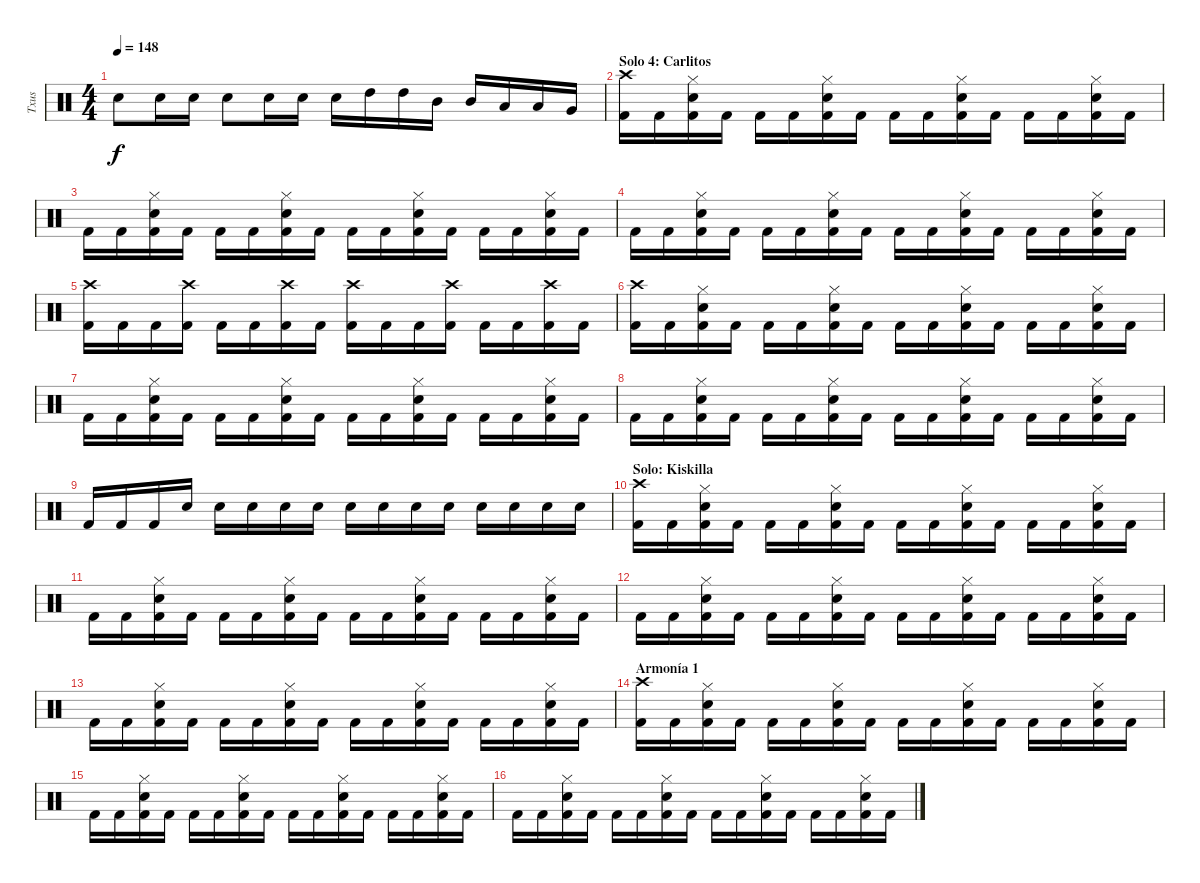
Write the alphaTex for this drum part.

\track ("Txus" "Txus") {instrument percussion}
\staff {score}
\articulation defaults
\ts (4 4)
\tempo 148
\clef neutral
\ks c "Electric Snare (hit)".8{dy f} "Electric Snare (hit)".16 "Electric Snare (hit)".16 "Electric Snare (hit)".8 "Electric Snare (hit)".16 "Electric Snare (hit)".16 "Electric Snare (hit)".16 "High Tom (hit)".16 "High Tom (hit)".16 "Mid Tom (hit)".16 "Mid Tom (hit)".16 "Low Tom (hit)".16 "Low Tom (hit)".16 "Very Low Tom (hit)".16
|
\section ("" "Solo 4: Carlitos")
("Kick (hit) 2" "Crash high (hit)").16 "Kick (hit) 2".16 ("Kick (hit) 2" "Electric Snare (hit)" "Hi-Hat (closed)").16 "Kick (hit) 2".16 "Kick (hit) 2".16 "Kick (hit) 2".16 ("Kick (hit) 2" "Electric Snare (hit)" "Hi-Hat (closed)").16 "Kick (hit) 2".16 "Kick (hit) 2".16 "Kick (hit) 2".16 ("Kick (hit) 2" "Electric Snare (hit)" "Hi-Hat (closed)").16 "Kick (hit) 2".16 "Kick (hit) 2".16 "Kick (hit) 2".16 ("Kick (hit) 2" "Electric Snare (hit)" "Hi-Hat (closed)").16 "Kick (hit) 2".16 |
"Kick (hit) 2".16 "Kick (hit) 2".16 ("Kick (hit) 2" "Electric Snare (hit)" "Hi-Hat (closed)").16 "Kick (hit) 2".16 "Kick (hit) 2".16 "Kick (hit) 2".16 ("Kick (hit) 2" "Electric Snare (hit)" "Hi-Hat (closed)").16 "Kick (hit) 2".16 "Kick (hit) 2".16 "Kick (hit) 2".16 ("Kick (hit) 2" "Electric Snare (hit)" "Hi-Hat (closed)").16 "Kick (hit) 2".16 "Kick (hit) 2".16 "Kick (hit) 2".16 ("Kick (hit) 2" "Electric Snare (hit)" "Hi-Hat (closed)").16 "Kick (hit) 2".16 |
"Kick (hit) 2".16 "Kick (hit) 2".16 ("Kick (hit) 2" "Electric Snare (hit)" "Hi-Hat (closed)").16 "Kick (hit) 2".16 "Kick (hit) 2".16 "Kick (hit) 2".16 ("Kick (hit) 2" "Electric Snare (hit)" "Hi-Hat (closed)").16 "Kick (hit) 2".16 "Kick (hit) 2".16 "Kick (hit) 2".16 ("Kick (hit) 2" "Electric Snare (hit)" "Hi-Hat (closed)").16 "Kick (hit) 2".16 "Kick (hit) 2".16 "Kick (hit) 2".16 ("Kick (hit) 2" "Electric Snare (hit)" "Hi-Hat (closed)").16 "Kick (hit) 2".16 |
("Kick (hit) 2" "Crash high (hit)").16 "Kick (hit) 2".16 "Kick (hit) 2".16 ("Kick (hit) 2" "Crash high (hit)").16 "Kick (hit) 2".16 "Kick (hit) 2".16 ("Kick (hit) 2" "Crash high (hit)").16 "Kick (hit) 2".16 ("Kick (hit) 2" "Crash high (hit)").16 "Kick (hit) 2".16 "Kick (hit) 2".16 ("Kick (hit) 2" "Crash high (hit)").16 "Kick (hit) 2".16 "Kick (hit) 2".16 ("Kick (hit) 2" "Crash high (hit)").16 "Kick (hit) 2".16 |
("Kick (hit) 2" "Crash high (hit)").16 "Kick (hit) 2".16 ("Kick (hit) 2" "Electric Snare (hit)" "Hi-Hat (closed)").16 "Kick (hit) 2".16 "Kick (hit) 2".16 "Kick (hit) 2".16 ("Kick (hit) 2" "Electric Snare (hit)" "Hi-Hat (closed)").16 "Kick (hit) 2".16 "Kick (hit) 2".16 "Kick (hit) 2".16 ("Kick (hit) 2" "Electric Snare (hit)" "Hi-Hat (closed)").16 "Kick (hit) 2".16 "Kick (hit) 2".16 "Kick (hit) 2".16 ("Kick (hit) 2" "Electric Snare (hit)" "Hi-Hat (closed)").16 "Kick (hit) 2".16 |
"Kick (hit) 2".16 "Kick (hit) 2".16 ("Kick (hit) 2" "Electric Snare (hit)" "Hi-Hat (closed)").16 "Kick (hit) 2".16 "Kick (hit) 2".16 "Kick (hit) 2".16 ("Kick (hit) 2" "Electric Snare (hit)" "Hi-Hat (closed)").16 "Kick (hit) 2".16 "Kick (hit) 2".16 "Kick (hit) 2".16 ("Kick (hit) 2" "Electric Snare (hit)" "Hi-Hat (closed)").16 "Kick (hit) 2".16 "Kick (hit) 2".16 "Kick (hit) 2".16 ("Kick (hit) 2" "Electric Snare (hit)" "Hi-Hat (closed)").16 "Kick (hit) 2".16 |
"Kick (hit) 2".16 "Kick (hit) 2".16 ("Kick (hit) 2" "Electric Snare (hit)" "Hi-Hat (closed)").16 "Kick (hit) 2".16 "Kick (hit) 2".16 "Kick (hit) 2".16 ("Kick (hit) 2" "Electric Snare (hit)" "Hi-Hat (closed)").16 "Kick (hit) 2".16 "Kick (hit) 2".16 "Kick (hit) 2".16 ("Kick (hit) 2" "Electric Snare (hit)" "Hi-Hat (closed)").16 "Kick (hit) 2".16 "Kick (hit) 2".16 "Kick (hit) 2".16 ("Kick (hit) 2" "Electric Snare (hit)" "Hi-Hat (closed)").16 "Kick (hit) 2".16 |
"Kick (hit) 2".16 "Kick (hit) 2".16 "Kick (hit) 2".16 "Electric Snare (hit)".16 "Electric Snare (hit)".16 "Electric Snare (hit)".16 "Electric Snare (hit)".16 "Electric Snare (hit)".16 "Electric Snare (hit)".16 "Electric Snare (hit)".16 "Electric Snare (hit)".16 "Electric Snare (hit)".16 "Electric Snare (hit)".16 "Electric Snare (hit)".16 "Electric Snare (hit)".16 "Electric Snare (hit)".16 |
\section ("" "Solo: Kiskilla")
("Kick (hit) 2" "Crash high (hit)").16 "Kick (hit) 2".16 ("Kick (hit) 2" "Electric Snare (hit)" "Hi-Hat (closed)").16 "Kick (hit) 2".16 "Kick (hit) 2".16 "Kick (hit) 2".16 ("Kick (hit) 2" "Electric Snare (hit)" "Hi-Hat (closed)").16 "Kick (hit) 2".16 "Kick (hit) 2".16 "Kick (hit) 2".16 ("Kick (hit) 2" "Electric Snare (hit)" "Hi-Hat (closed)").16 "Kick (hit) 2".16 "Kick (hit) 2".16 "Kick (hit) 2".16 ("Kick (hit) 2" "Electric Snare (hit)" "Hi-Hat (closed)").16 "Kick (hit) 2".16 |
"Kick (hit) 2".16 "Kick (hit) 2".16 ("Kick (hit) 2" "Electric Snare (hit)" "Hi-Hat (closed)").16 "Kick (hit) 2".16 "Kick (hit) 2".16 "Kick (hit) 2".16 ("Kick (hit) 2" "Electric Snare (hit)" "Hi-Hat (closed)").16 "Kick (hit) 2".16 "Kick (hit) 2".16 "Kick (hit) 2".16 ("Kick (hit) 2" "Electric Snare (hit)" "Hi-Hat (closed)").16 "Kick (hit) 2".16 "Kick (hit) 2".16 "Kick (hit) 2".16 ("Kick (hit) 2" "Electric Snare (hit)" "Hi-Hat (closed)").16 "Kick (hit) 2".16 |
"Kick (hit) 2".16 "Kick (hit) 2".16 ("Kick (hit) 2" "Electric Snare (hit)" "Hi-Hat (closed)").16 "Kick (hit) 2".16 "Kick (hit) 2".16 "Kick (hit) 2".16 ("Kick (hit) 2" "Electric Snare (hit)" "Hi-Hat (closed)").16 "Kick (hit) 2".16 "Kick (hit) 2".16 "Kick (hit) 2".16 ("Kick (hit) 2" "Electric Snare (hit)" "Hi-Hat (closed)").16 "Kick (hit) 2".16 "Kick (hit) 2".16 "Kick (hit) 2".16 ("Kick (hit) 2" "Electric Snare (hit)" "Hi-Hat (closed)").16 "Kick (hit) 2".16 |
"Kick (hit) 2".16 "Kick (hit) 2".16 ("Kick (hit) 2" "Electric Snare (hit)" "Hi-Hat (closed)").16 "Kick (hit) 2".16 "Kick (hit) 2".16 "Kick (hit) 2".16 ("Kick (hit) 2" "Electric Snare (hit)" "Hi-Hat (closed)").16 "Kick (hit) 2".16 "Kick (hit) 2".16 "Kick (hit) 2".16 ("Kick (hit) 2" "Electric Snare (hit)" "Hi-Hat (closed)").16 "Kick (hit) 2".16 "Kick (hit) 2".16 "Kick (hit) 2".16 ("Kick (hit) 2" "Electric Snare (hit)" "Hi-Hat (closed)").16 "Kick (hit) 2".16 |
\section ("" "Armonía 1")
("Kick (hit) 2" "Crash high (hit)").16 "Kick (hit) 2".16 ("Kick (hit) 2" "Electric Snare (hit)" "Hi-Hat (closed)").16 "Kick (hit) 2".16 "Kick (hit) 2".16 "Kick (hit) 2".16 ("Kick (hit) 2" "Electric Snare (hit)" "Hi-Hat (closed)").16 "Kick (hit) 2".16 "Kick (hit) 2".16 "Kick (hit) 2".16 ("Kick (hit) 2" "Electric Snare (hit)" "Hi-Hat (closed)").16 "Kick (hit) 2".16 "Kick (hit) 2".16 "Kick (hit) 2".16 ("Kick (hit) 2" "Electric Snare (hit)" "Hi-Hat (closed)").16 "Kick (hit) 2".16 |
"Kick (hit) 2".16 "Kick (hit) 2".16 ("Kick (hit) 2" "Electric Snare (hit)" "Hi-Hat (closed)").16 "Kick (hit) 2".16 "Kick (hit) 2".16 "Kick (hit) 2".16 ("Kick (hit) 2" "Electric Snare (hit)" "Hi-Hat (closed)").16 "Kick (hit) 2".16 "Kick (hit) 2".16 "Kick (hit) 2".16 ("Kick (hit) 2" "Electric Snare (hit)" "Hi-Hat (closed)").16 "Kick (hit) 2".16 "Kick (hit) 2".16 "Kick (hit) 2".16 ("Kick (hit) 2" "Electric Snare (hit)" "Hi-Hat (closed)").16 "Kick (hit) 2".16 |
"Kick (hit) 2".16 "Kick (hit) 2".16 ("Kick (hit) 2" "Electric Snare (hit)" "Hi-Hat (closed)").16 "Kick (hit) 2".16 "Kick (hit) 2".16 "Kick (hit) 2".16 ("Kick (hit) 2" "Electric Snare (hit)" "Hi-Hat (closed)").16 "Kick (hit) 2".16 "Kick (hit) 2".16 "Kick (hit) 2".16 ("Kick (hit) 2" "Electric Snare (hit)" "Hi-Hat (closed)").16 "Kick (hit) 2".16 "Kick (hit) 2".16 "Kick (hit) 2".16 ("Kick (hit) 2" "Electric Snare (hit)" "Hi-Hat (closed)").16 "Kick (hit) 2".16
